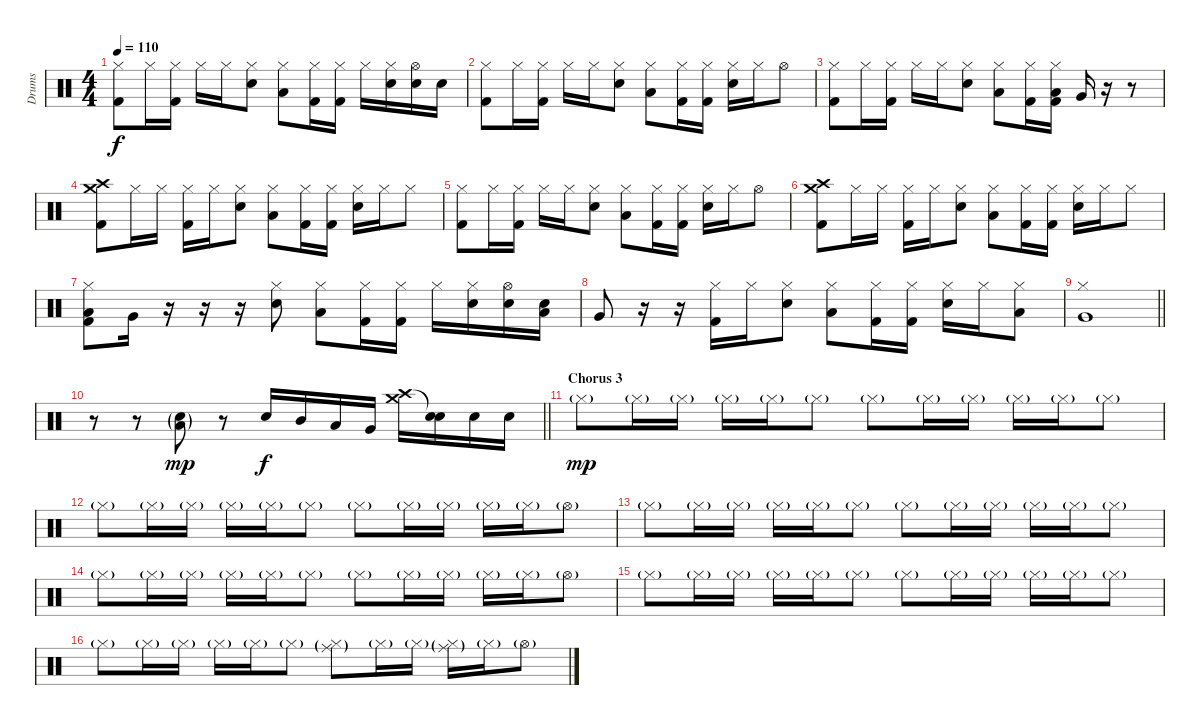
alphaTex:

\track ("Drums" "Drums") {instrument percussion}
\staff {score}
\articulation defaults
\ts (4 4)
\tempo 110
\clef neutral
\ks c
("Hi-Hat (closed)" "Kick (hit) 2").8{dy f} "Hi-Hat (closed)".16 ("Hi-Hat (closed)" "Kick (hit) 2").16 "Hi-Hat (closed)".16 "Hi-Hat (closed)".16 ("Hi-Hat (closed)" "Snare (hit) 2").8 ("Hi-Hat (closed)" "Low Tom (hit)").8 ("Hi-Hat (closed)" "Kick (hit) 2").16 ("Hi-Hat (closed)" "Kick (hit) 2").16 "Hi-Hat (closed)".16 ("Hi-Hat (closed)" "Snare (hit) 2").16 ("Hi-Hat (open)" "Snare (hit) 2").16 "Snare (hit) 2".16 |
("Hi-Hat (closed)" "Kick (hit) 2").8 "Hi-Hat (closed)".16 ("Hi-Hat (closed)" "Kick (hit) 2").16 "Hi-Hat (closed)".16 "Hi-Hat (closed)".16 ("Hi-Hat (closed)" "Snare (hit) 2").8 ("Hi-Hat (closed)" "Low Tom (hit)").8 ("Hi-Hat (closed)" "Kick (hit) 2").16 ("Hi-Hat (closed)" "Kick (hit) 2").16 ("Hi-Hat (closed)" "Snare (hit) 2").16 "Hi-Hat (closed)".16 "Hi-Hat (open)".8 |
("Hi-Hat (closed)" "Kick (hit) 2").8 "Hi-Hat (closed)".16 ("Hi-Hat (closed)" "Kick (hit) 2").16 "Hi-Hat (closed)".16 "Hi-Hat (closed)".16 ("Hi-Hat (closed)" "Snare (hit) 2").8 ("Hi-Hat (closed)" "Low Tom (hit)").8 ("Hi-Hat (closed)" "Kick (hit) 2").16 ("Hi-Hat (closed)" "Low Tom (hit)" "Kick (hit) 2").16 "Very Low Tom (hit)".16 r.16 r.8 |
("Crash medium (hit)" "Crash high (hit)" "Kick (hit) 2").8 "Hi-Hat (closed)".16 "Hi-Hat (closed)".16 ("Hi-Hat (closed)" "Kick (hit) 2").16 "Hi-Hat (closed)".16 ("Hi-Hat (closed)" "Snare (hit) 2").8 ("Hi-Hat (closed)" "Low Tom (hit)").8 ("Hi-Hat (closed)" "Kick (hit) 2").16 ("Hi-Hat (closed)" "Kick (hit) 2").16 ("Hi-Hat (closed)" "Snare (hit) 2").16 "Hi-Hat (closed)".16 "Hi-Hat (closed)".8 |
("Hi-Hat (closed)" "Kick (hit) 2").8 "Hi-Hat (closed)".16 ("Hi-Hat (closed)" "Kick (hit) 2").16 "Hi-Hat (closed)".16 "Hi-Hat (closed)".16 ("Hi-Hat (closed)" "Snare (hit) 2").8 ("Hi-Hat (closed)" "Low Tom (hit)").8 ("Hi-Hat (closed)" "Kick (hit) 2").16 ("Hi-Hat (closed)" "Kick (hit) 2").16 ("Hi-Hat (closed)" "Snare (hit) 2").16 "Hi-Hat (closed)".16 "Hi-Hat (open)".8 |
("Crash medium (hit)" "Crash high (hit)" "Kick (hit) 2").8 "Hi-Hat (closed)".16 "Hi-Hat (closed)".16 ("Hi-Hat (closed)" "Kick (hit) 2").16 "Hi-Hat (closed)".16 ("Hi-Hat (closed)" "Snare (hit) 2").8 ("Hi-Hat (closed)" "Low Tom (hit)").8 ("Hi-Hat (closed)" "Kick (hit) 2").16 ("Hi-Hat (closed)" "Kick (hit) 2").16 ("Hi-Hat (closed)" "Snare (hit) 2").16 "Hi-Hat (closed)".16 "Hi-Hat (closed)".8 |
("Hi-Hat (closed)" "Low Tom (hit)" "Kick (hit) 2").8 "Very Low Tom (hit)".16 r.16 r.16 r.16 ("Hi-Hat (closed)" "Snare (hit) 2").8 ("Hi-Hat (closed)" "Low Tom (hit)").8 ("Hi-Hat (closed)" "Kick (hit) 2").16 ("Hi-Hat (closed)" "Kick (hit) 2").16 "Hi-Hat (closed)".16 ("Hi-Hat (closed)" "Snare (hit) 2").16 ("Hi-Hat (open)" "Snare (hit) 2").16 ("Low Tom (hit)" "Snare (hit) 2").16 |
"Very Low Tom (hit)".8 r.16 r.16 ("Hi-Hat (closed)" "Kick (hit) 2").16 "Hi-Hat (closed)".16 ("Hi-Hat (closed)" "Snare (hit) 2").8 ("Hi-Hat (closed)" "Low Tom (hit)").8 ("Hi-Hat (closed)" "Kick (hit) 2").16 ("Hi-Hat (closed)" "Kick (hit) 2").16 ("Hi-Hat (closed)" "Snare (hit) 2").16 "Hi-Hat (closed)".16 ("Hi-Hat (closed)" "Low Tom (hit)").8 |
\barLineRight lightlight
("Hi-Hat (closed)" "Very Low Tom (hit)").1 |
\barLineRight lightlight
r.8 r.8 ("Low Tom (hit)"{g} "Snare (hit) 2"{g}).8{dy mp} r.8 "Snare (hit) 2".16{dy f} "Mid Tom (hit)".16 "Low Tom (hit)".16 "Very Low Tom (hit)".16 ("Crash high (hit)" "Crash medium (hit)").16 ("Snare (hit)"{t} "Snare (hit) 2").16 "Snare (hit) 2".16 "Snare (hit) 2".16 |
\section ("" "Chorus 3")
"Hi-Hat (closed)"{g}.8{dy mp} "Hi-Hat (closed)"{g}.16 "Hi-Hat (closed)"{g}.16 "Hi-Hat (closed)"{g}.16 "Hi-Hat (closed)"{g}.16 "Hi-Hat (closed)"{g}.8 "Hi-Hat (closed)"{g}.8 "Hi-Hat (closed)"{g}.16 "Hi-Hat (closed)"{g}.16 "Hi-Hat (closed)"{g}.16 "Hi-Hat (closed)"{g}.16 "Hi-Hat (closed)"{g}.8 |
"Hi-Hat (closed)"{g}.8 "Hi-Hat (closed)"{g}.16 "Hi-Hat (closed)"{g}.16 "Hi-Hat (closed)"{g}.16 "Hi-Hat (closed)"{g}.16 "Hi-Hat (closed)"{g}.8 "Hi-Hat (closed)"{g}.8 "Hi-Hat (closed)"{g}.16 "Hi-Hat (closed)"{g}.16 "Hi-Hat (closed)"{g}.16 "Hi-Hat (closed)"{g}.16 "Hi-Hat (open)"{g}.8 |
"Hi-Hat (closed)"{g}.8 "Hi-Hat (closed)"{g}.16 "Hi-Hat (closed)"{g}.16 "Hi-Hat (closed)"{g}.16 "Hi-Hat (closed)"{g}.16 "Hi-Hat (closed)"{g}.8 "Hi-Hat (closed)"{g}.8 "Hi-Hat (closed)"{g}.16 "Hi-Hat (closed)"{g}.16 "Hi-Hat (closed)"{g}.16 "Hi-Hat (closed)"{g}.16 "Hi-Hat (closed)"{g}.8 |
"Hi-Hat (closed)"{g}.8 "Hi-Hat (closed)"{g}.16 "Hi-Hat (closed)"{g}.16 "Hi-Hat (closed)"{g}.16 "Hi-Hat (closed)"{g}.16 "Hi-Hat (closed)"{g}.8 "Hi-Hat (closed)"{g}.8 "Hi-Hat (closed)"{g}.16 "Hi-Hat (closed)"{g}.16 "Hi-Hat (closed)"{g}.16 "Hi-Hat (closed)"{g}.16 "Hi-Hat (open)"{g}.8 |
"Hi-Hat (closed)"{g}.8 "Hi-Hat (closed)"{g}.16 "Hi-Hat (closed)"{g}.16 "Hi-Hat (closed)"{g}.16 "Hi-Hat (closed)"{g}.16 "Hi-Hat (closed)"{g}.8 "Hi-Hat (closed)"{g}.8 "Hi-Hat (closed)"{g}.16 "Hi-Hat (closed)"{g}.16 "Hi-Hat (closed)"{g}.16 "Hi-Hat (closed)"{g}.16 "Hi-Hat (closed)"{g}.8 |
"Hi-Hat (closed)"{g}.8 "Hi-Hat (closed)"{g}.16 "Hi-Hat (closed)"{g}.16 "Hi-Hat (closed)"{g}.16 "Hi-Hat (closed)"{g}.16 "Hi-Hat (closed)"{g}.8 ("Hi-Hat (closed)"{g} "Ride (middle)"{g}).8 "Hi-Hat (closed)"{g}.16 "Hi-Hat (closed)"{g}.16 ("Hi-Hat (closed)"{g} "Ride (middle)"{g}).16 "Hi-Hat (closed)"{g}.16 "Hi-Hat (open)"{g}.8
